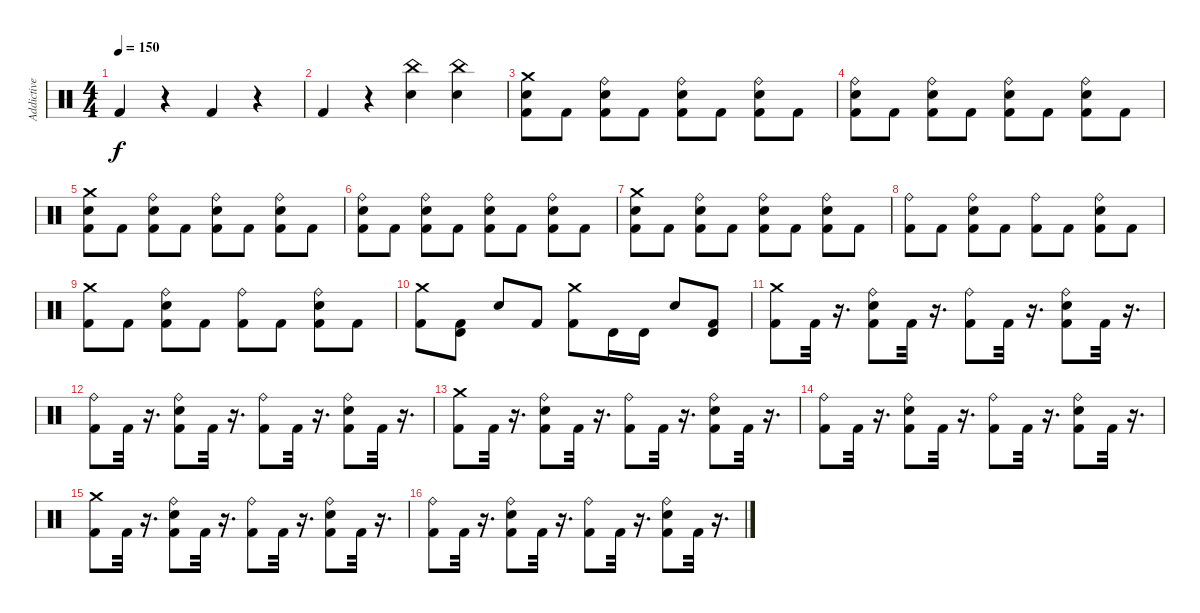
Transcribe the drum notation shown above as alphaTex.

\track ("Addictive Drums (MIDI)" "Addictive ") {instrument percussion}
\staff {score}
\articulation defaults
\ts (4 4)
\tempo 150
\clef neutral
\ks c "Kick (hit) 2".4{dy f}
r.4 "Kick (hit) 2".4 r.4 |
"Kick (hit) 2".4 r.4 ("Snare (hit) 2" "China (hit)").4 ("China (hit)" "Snare (hit) 2").4 |
("Snare (hit) 2" "Kick (hit) 2" "Crash medium (hit)").8 "Kick (hit) 2".8 ("Ride (bell)" "Kick (hit) 2" "Snare (hit) 2").8 "Kick (hit) 2".8 ("Snare (hit) 2" "Kick (hit) 2" "Ride (bell)").8 "Kick (hit) 2".8 ("Ride (bell)" "Kick (hit) 2" "Snare (hit) 2").8 "Kick (hit) 2".8 |
("Snare (hit) 2" "Kick (hit) 2" "Ride (bell)").8 "Kick (hit) 2".8 ("Ride (bell)" "Kick (hit) 2" "Snare (hit) 2").8 "Kick (hit) 2".8 ("Snare (hit) 2" "Kick (hit) 2" "Ride (bell)").8 "Kick (hit) 2".8 ("Snare (hit) 2" "Kick (hit) 2" "Ride (bell)").8 "Kick (hit) 2".8 |
("Snare (hit) 2" "Kick (hit) 2" "Crash medium (hit)").8 "Kick (hit) 2".8 ("Ride (bell)" "Kick (hit) 2" "Snare (hit) 2").8 "Kick (hit) 2".8 ("Snare (hit) 2" "Ride (bell)" "Kick (hit) 2").8 "Kick (hit) 2".8 ("Snare (hit) 2" "Kick (hit) 2" "Ride (bell)").8 "Kick (hit) 2".8 |
("Snare (hit) 2" "Ride (bell)" "Kick (hit) 2").8 "Kick (hit) 2".8 ("Snare (hit) 2" "Kick (hit) 2" "Ride (bell)").8 "Kick (hit) 2".8 ("Snare (hit) 2" "Ride (bell)" "Kick (hit) 2").8 "Kick (hit) 2".8 ("Ride (bell)" "Kick (hit) 2" "Snare (hit) 2").8 "Kick (hit) 2".8 |
("Snare (hit) 2" "Crash medium (hit)" "Kick (hit) 2").8 "Kick (hit) 2".8 ("Ride (bell)" "Kick (hit) 2" "Snare (hit) 2").8 "Kick (hit) 2".8 ("Snare (hit) 2" "Kick (hit) 2" "Ride (bell)").8 "Kick (hit) 2".8 ("Ride (bell)" "Kick (hit) 2" "Snare (hit) 2").8 "Kick (hit) 2".8 |
("Kick (hit) 2" "Ride (bell)").8 "Kick (hit) 2".8 ("Snare (hit) 2" "Kick (hit) 2" "Ride (bell)").8 "Kick (hit) 2".8 ("Kick (hit) 2" "Ride (bell)").8 "Kick (hit) 2".8 ("Snare (hit) 2" "Kick (hit) 2" "Ride (bell)").8 "Kick (hit) 2".8 |
("Crash medium (hit)" "Kick (hit) 2").8 "Kick (hit) 2".8 ("Ride (bell)" "Kick (hit) 2" "Snare (hit) 2").8 "Kick (hit) 2".8 ("Kick (hit) 2" "Ride (bell)").8 "Kick (hit) 2".8 ("Ride (bell)" "Kick (hit) 2" "Snare (hit) 2").8 "Kick (hit) 2".8 |
("Crash medium (hit)" "Kick (hit) 2").8 ("Timbale high (hit)" "Kick (hit) 2").8 "Snare (hit) 2".8 "Kick (hit) 2".8 ("Kick (hit) 2" "Crash medium (hit)").8 "Timbale high (hit)".16 "Timbale high (hit)".16 "Snare (hit) 2".8 ("Kick (hit) 2" "Timbale high (hit)").8 |
("Kick (hit) 2" "Crash medium (hit)").8 "Kick (hit) 2".32 r.16{d} ("Ride (bell)" "Kick (hit) 2" "Snare (hit) 2").8 "Kick (hit) 2".32 r.16{d} ("Kick (hit) 2" "Ride (bell)").8 "Kick (hit) 2".32 r.16{d} ("Ride (bell)" "Kick (hit) 2" "Snare (hit) 2").8 "Kick (hit) 2".32 r.16{d} |
("Kick (hit) 2" "Ride (bell)").8 "Kick (hit) 2".32 r.16{d} ("Ride (bell)" "Kick (hit) 2" "Snare (hit) 2").8 "Kick (hit) 2".32 r.16{d} ("Kick (hit) 2" "Ride (bell)").8 "Kick (hit) 2".32 r.16{d} ("Snare (hit) 2" "Kick (hit) 2" "Ride (bell)").8 "Kick (hit) 2".32 r.16{d} |
("Kick (hit) 2" "Crash medium (hit)").8 "Kick (hit) 2".32 r.16{d} ("Ride (bell)" "Kick (hit) 2" "Snare (hit) 2").8 "Kick (hit) 2".32 r.16{d} ("Kick (hit) 2" "Ride (bell)").8 "Kick (hit) 2".32 r.16{d} ("Ride (bell)" "Kick (hit) 2" "Snare (hit) 2").8 "Kick (hit) 2".32 r.16{d} |
("Kick (hit) 2" "Ride (bell)").8 "Kick (hit) 2".32 r.16{d} ("Snare (hit) 2" "Kick (hit) 2" "Ride (bell)").8 "Kick (hit) 2".32 r.16{d} ("Kick (hit) 2" "Ride (bell)").8 "Kick (hit) 2".32 r.16{d} ("Ride (bell)" "Kick (hit) 2" "Snare (hit) 2").8 "Kick (hit) 2".32 r.16{d} |
("Kick (hit) 2" "Crash medium (hit)").8 "Kick (hit) 2".32 r.16{d} ("Ride (bell)" "Kick (hit) 2" "Snare (hit) 2").8 "Kick (hit) 2".32 r.16{d} ("Ride (bell)" "Kick (hit) 2").8 "Kick (hit) 2".32 r.16{d} ("Ride (bell)" "Kick (hit) 2" "Snare (hit) 2").8 "Kick (hit) 2".32 r.16{d} |
("Kick (hit) 2" "Ride (bell)").8 "Kick (hit) 2".32 r.16{d} ("Snare (hit) 2" "Kick (hit) 2" "Ride (bell)").8 "Kick (hit) 2".32 r.16{d} ("Kick (hit) 2" "Ride (bell)").8 "Kick (hit) 2".32 r.16{d} ("Snare (hit) 2" "Kick (hit) 2" "Ride (bell)").8 "Kick (hit) 2".32 r.16{d}
